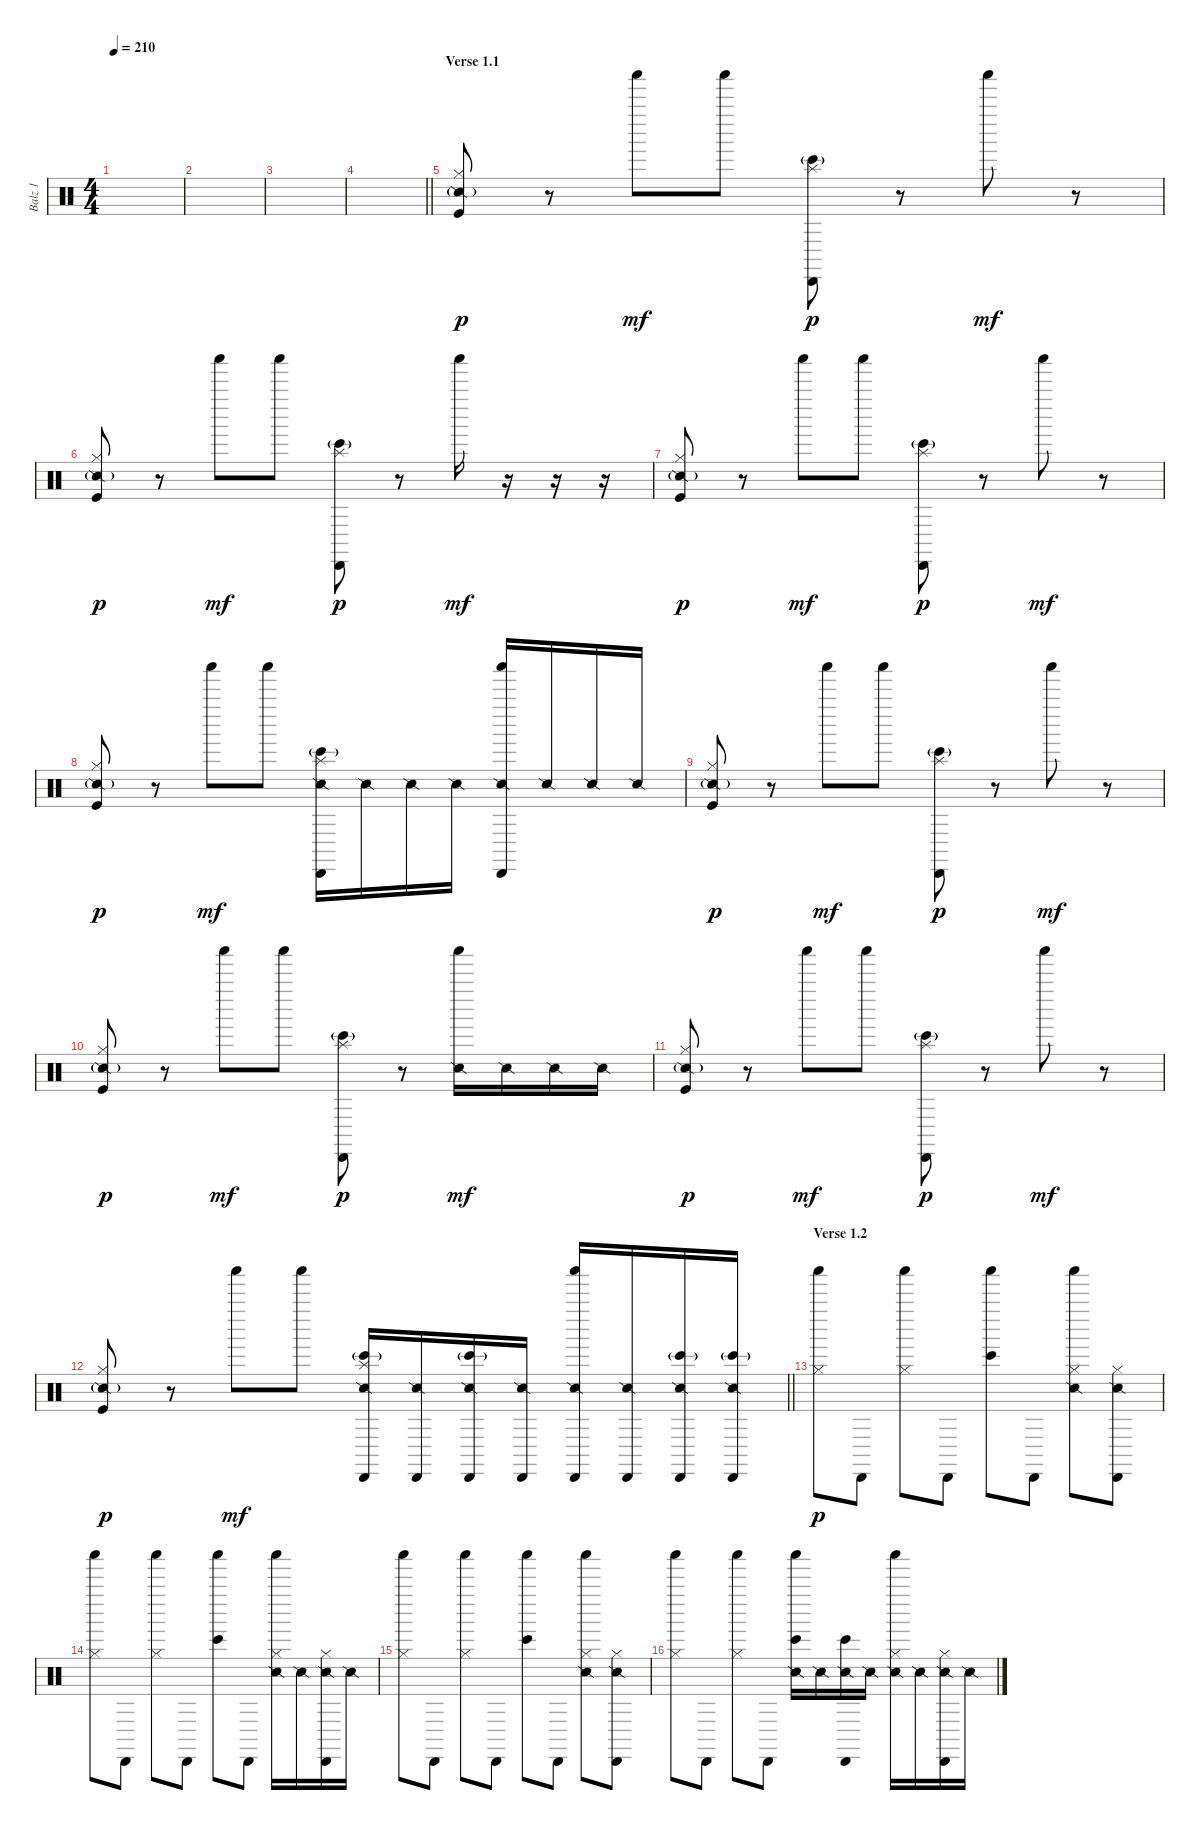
\track ("Balz 1" "Balz 1") {instrument percussion}
\staff {score}
\articulation defaults
\ts (4 4)
\tempo 210
\clef neutral
\ks c
|
|
|
\barLineRight lightlight
|
\section ("" "Verse 1.1")
("Kick (hit)" "Hi-Hat (closed)" "Snare (side stick) 2"{g}).8{dy p} r.8 "Shaker (hit)".8{dy mf} "Shaker (hit)".8 ("Splash (hit)" "Cabasa (hit)" "Bongo High (hit)"{g}).8{dy p} r.8 "Shaker (hit)".8{dy mf} r.8 |
("Kick (hit)" "Hi-Hat (closed)" "Snare (side stick) 2"{g}).8{dy p} r.8 "Shaker (hit)".8{dy mf} "Shaker (hit)".8 ("Splash (hit)" "Cabasa (hit)" "Bongo High (hit)"{g}).8{dy p} r.8 "Shaker (hit)".16{dy mf} r.16 r.16 r.16 |
("Kick (hit)" "Hi-Hat (closed)" "Snare (side stick) 2"{g}).8{dy p} r.8 "Shaker (hit)".8{dy mf} "Shaker (hit)".8 ("Splash (hit)" "Cabasa (hit)" "Bongo High (hit)"{g}).8{dy p} r.8 "Shaker (hit)".8{dy mf} r.8 |
("Kick (hit)" "Hi-Hat (closed)" "Snare (side stick) 2"{g}).8{dy p} r.8 "Shaker (hit)".8{dy mf} "Shaker (hit)".8 ("Splash (hit)" "Cabasa (hit)" "Bongo High (hit)"{g} "Snare (side stick) 2").16 "Snare (side stick) 2".16 "Snare (side stick) 2".16 "Snare (side stick) 2".16 ("Cabasa (hit)" "Shaker (hit)" "Snare (side stick) 2").16 "Snare (side stick) 2".16 "Snare (side stick) 2".16 "Snare (side stick) 2".16 |
("Kick (hit)" "Hi-Hat (closed)" "Snare (side stick) 2"{g}).8{dy p} r.8 "Shaker (hit)".8{dy mf} "Shaker (hit)".8 ("Splash (hit)" "Cabasa (hit)" "Bongo High (hit)"{g}).8{dy p} r.8 "Shaker (hit)".8{dy mf} r.8 |
("Kick (hit)" "Hi-Hat (closed)" "Snare (side stick) 2"{g}).8{dy p} r.8 "Shaker (hit)".8{dy mf} "Shaker (hit)".8 ("Splash (hit)" "Cabasa (hit)" "Bongo High (hit)"{g}).8{dy p} r.8 ("Shaker (hit)" "Snare (side stick) 2").16{dy mf} "Snare (side stick) 2".16 "Snare (side stick) 2".16 "Snare (side stick) 2".16 |
("Kick (hit)" "Hi-Hat (closed)" "Snare (side stick) 2"{g}).8{dy p} r.8 "Shaker (hit)".8{dy mf} "Shaker (hit)".8 ("Splash (hit)" "Cabasa (hit)" "Bongo High (hit)"{g}).8{dy p} r.8 "Shaker (hit)".8{dy mf} r.8 |
\barLineRight lightlight
("Kick (hit)" "Hi-Hat (closed)" "Snare (side stick) 2"{g}).8{dy p} r.8 "Shaker (hit)".8{dy mf} "Shaker (hit)".8 ("Splash (hit)" "Cabasa (hit)" "Bongo High (hit)"{g} "Snare (side stick) 2").16 ("Cabasa (hit)" "Snare (side stick) 2").16 ("Cabasa (hit)" "Bongo High (hit)"{g} "Snare (side stick) 2").16 ("Cabasa (hit)" "Snare (side stick) 2").16 ("Cabasa (hit)" "Shaker (hit)" "Snare (side stick) 2").16 ("Cabasa (hit)" "Snare (side stick) 2").16 ("Cabasa (hit)" "Bongo High (hit)"{g} "Snare (side stick) 2").16 ("Cabasa (hit)" "Bongo High (hit)"{g} "Snare (side stick) 2").16 |
\section ("" "Verse 1.2")
("Shaker (hit)" "Hi-Hat (closed)").8{dy p} "Cabasa (hit)".8 ("Shaker (hit)" "Hi-Hat (closed)").8 "Cabasa (hit)".8 ("Shaker (hit)" "Bongo High (hit)").8 "Cabasa (hit)".8 ("Shaker (hit)" "Hi-Hat (closed)" "Snare (side stick) 2").8 ("Cabasa (hit)" "Hi-Hat (closed)" "Snare (side stick) 2").8 |
("Shaker (hit)" "Hi-Hat (closed)").8 "Cabasa (hit)".8 ("Shaker (hit)" "Hi-Hat (closed)").8 "Cabasa (hit)".8 ("Shaker (hit)" "Bongo High (hit)").8 "Cabasa (hit)".8 ("Shaker (hit)" "Hi-Hat (closed)" "Snare (side stick) 2").16 "Snare (side stick) 2".16 ("Cabasa (hit)" "Hi-Hat (closed)" "Snare (side stick) 2").16 "Snare (side stick) 2".16 |
("Shaker (hit)" "Hi-Hat (closed)").8 "Cabasa (hit)".8 ("Shaker (hit)" "Hi-Hat (closed)").8 "Cabasa (hit)".8 ("Shaker (hit)" "Bongo High (hit)").8 "Cabasa (hit)".8 ("Shaker (hit)" "Hi-Hat (closed)" "Snare (side stick) 2").8 ("Cabasa (hit)" "Hi-Hat (closed)" "Snare (side stick) 2").8 |
("Shaker (hit)" "Hi-Hat (closed)").8 "Cabasa (hit)".8 ("Shaker (hit)" "Hi-Hat (closed)").8 "Cabasa (hit)".8 ("Shaker (hit)" "Bongo High (hit)" "Snare (side stick) 2").16 "Snare (side stick) 2".16 ("Cabasa (hit)" "Bongo High (hit)" "Snare (side stick) 2").16 "Snare (side stick) 2".16 ("Shaker (hit)" "Hi-Hat (closed)" "Snare (side stick) 2").16 "Snare (side stick) 2".16 ("Cabasa (hit)" "Hi-Hat (closed)" "Snare (side stick) 2").16 "Snare (side stick) 2".16
